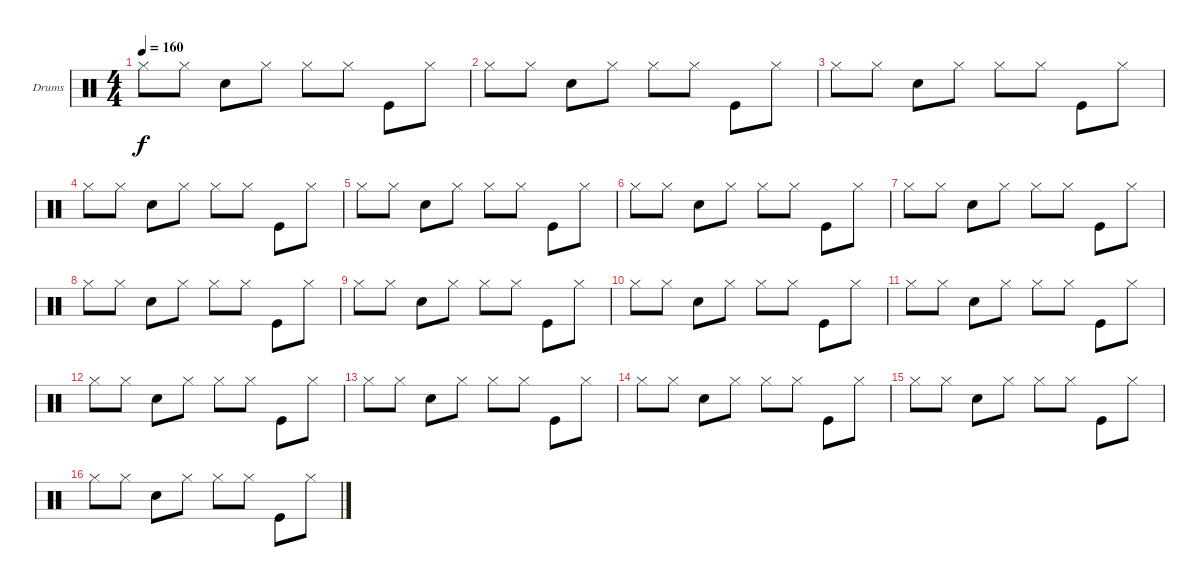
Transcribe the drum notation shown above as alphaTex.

\defaultSystemsLayout 4
\bracketExtendMode nobrackets
\firstSystemTrackNameOrientation horizontal
\otherSystemsTrackNameOrientation horizontal
\track ("Drumkit" "Drums") {instrument percussion}
\staff {score}
\articulation defaults
\ts (4 4)
\tempo 160
\clef neutral
\scale
0.369863
\ks c "Hi-Hat (closed)".8{dy f} "Hi-Hat (closed)".8 "Snare (hit) 2".8 "Hi-Hat (closed)".8 "Hi-Hat (closed)".8 "Hi-Hat (closed)".8 "Kick (hit)".8 "Hi-Hat (closed)".8
|
\scale
0.260274 "Hi-Hat (closed)".8 "Hi-Hat (closed)".8 "Snare (hit) 2".8 "Hi-Hat (closed)".8 "Hi-Hat (closed)".8 "Hi-Hat (closed)".8 "Kick (hit)".8 "Hi-Hat (closed)".8 |
\scale
0.333333 "Hi-Hat (closed)".8 "Hi-Hat (closed)".8 "Snare (hit) 2".8 "Hi-Hat (closed)".8 "Hi-Hat (closed)".8 "Hi-Hat (closed)".8 "Kick (hit)".8 "Hi-Hat (closed)".8 |
\scale
0.333333 "Hi-Hat (closed)".8 "Hi-Hat (closed)".8 "Snare (hit) 2".8 "Hi-Hat (closed)".8 "Hi-Hat (closed)".8 "Hi-Hat (closed)".8 "Kick (hit)".8 "Hi-Hat (closed)".8 |
\scale
0.333333 "Hi-Hat (closed)".8 "Hi-Hat (closed)".8 "Snare (hit) 2".8 "Hi-Hat (closed)".8 "Hi-Hat (closed)".8 "Hi-Hat (closed)".8 "Kick (hit)".8 "Hi-Hat (closed)".8 |
"Hi-Hat (closed)".8 "Hi-Hat (closed)".8 "Snare (hit) 2".8 "Hi-Hat (closed)".8 "Hi-Hat (closed)".8 "Hi-Hat (closed)".8 "Kick (hit)".8 "Hi-Hat (closed)".8 |
"Hi-Hat (closed)".8 "Hi-Hat (closed)".8 "Snare (hit) 2".8 "Hi-Hat (closed)".8 "Hi-Hat (closed)".8 "Hi-Hat (closed)".8 "Kick (hit)".8 "Hi-Hat (closed)".8 |
"Hi-Hat (closed)".8 "Hi-Hat (closed)".8 "Snare (hit) 2".8 "Hi-Hat (closed)".8 "Hi-Hat (closed)".8 "Hi-Hat (closed)".8 "Kick (hit)".8 "Hi-Hat (closed)".8 |
"Hi-Hat (closed)".8 "Hi-Hat (closed)".8 "Snare (hit) 2".8 "Hi-Hat (closed)".8 "Hi-Hat (closed)".8 "Hi-Hat (closed)".8 "Kick (hit)".8 "Hi-Hat (closed)".8 |
"Hi-Hat (closed)".8 "Hi-Hat (closed)".8 "Snare (hit) 2".8 "Hi-Hat (closed)".8 "Hi-Hat (closed)".8 "Hi-Hat (closed)".8 "Kick (hit)".8 "Hi-Hat (closed)".8 |
"Hi-Hat (closed)".8 "Hi-Hat (closed)".8 "Snare (hit) 2".8 "Hi-Hat (closed)".8 "Hi-Hat (closed)".8 "Hi-Hat (closed)".8 "Kick (hit)".8 "Hi-Hat (closed)".8 |
"Hi-Hat (closed)".8 "Hi-Hat (closed)".8 "Snare (hit) 2".8 "Hi-Hat (closed)".8 "Hi-Hat (closed)".8 "Hi-Hat (closed)".8 "Kick (hit)".8 "Hi-Hat (closed)".8 |
"Hi-Hat (closed)".8 "Hi-Hat (closed)".8 "Snare (hit) 2".8 "Hi-Hat (closed)".8 "Hi-Hat (closed)".8 "Hi-Hat (closed)".8 "Kick (hit)".8 "Hi-Hat (closed)".8 |
"Hi-Hat (closed)".8 "Hi-Hat (closed)".8 "Snare (hit) 2".8 "Hi-Hat (closed)".8 "Hi-Hat (closed)".8 "Hi-Hat (closed)".8 "Kick (hit)".8 "Hi-Hat (closed)".8 |
"Hi-Hat (closed)".8 "Hi-Hat (closed)".8 "Snare (hit) 2".8 "Hi-Hat (closed)".8 "Hi-Hat (closed)".8 "Hi-Hat (closed)".8 "Kick (hit)".8 "Hi-Hat (closed)".8 |
"Hi-Hat (closed)".8 "Hi-Hat (closed)".8 "Snare (hit) 2".8 "Hi-Hat (closed)".8 "Hi-Hat (closed)".8 "Hi-Hat (closed)".8 "Kick (hit)".8 "Hi-Hat (closed)".8
